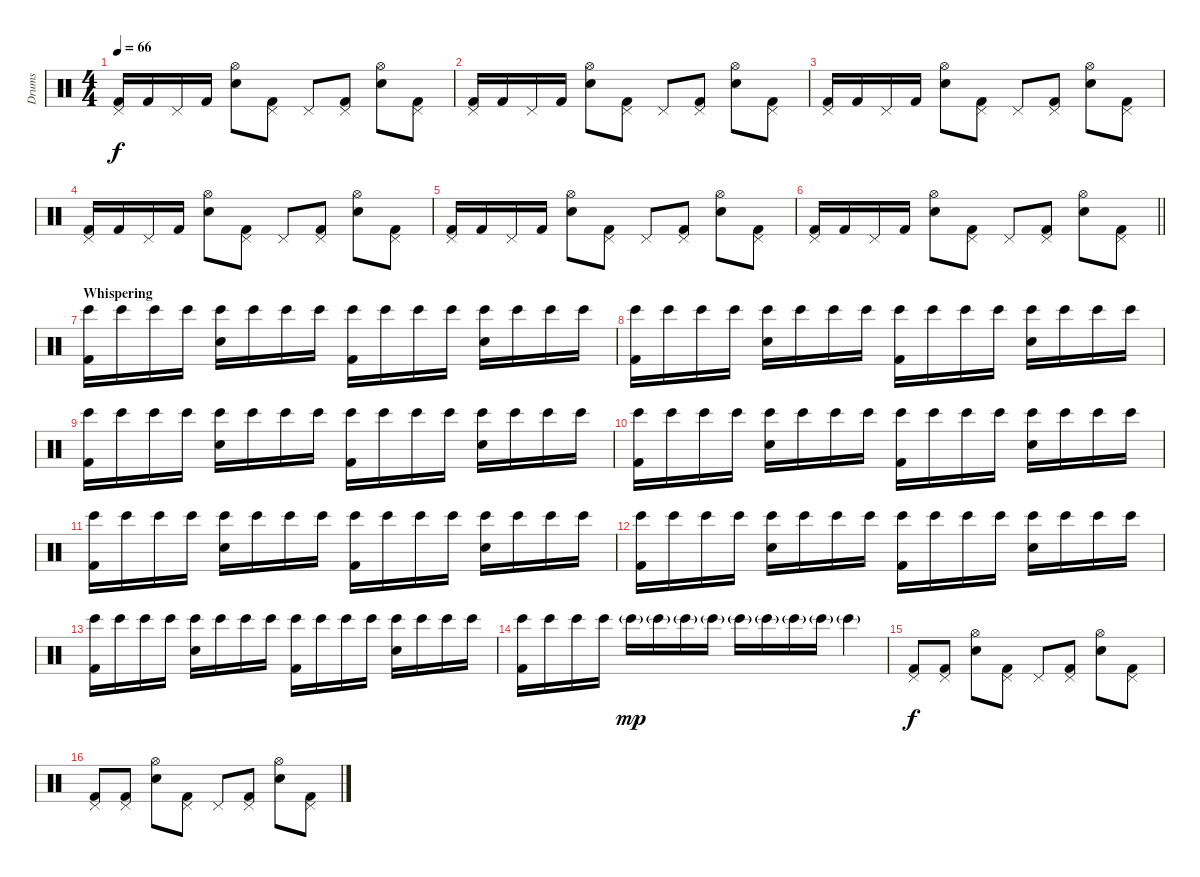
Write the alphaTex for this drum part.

\track ("Drums" "Drums") {instrument percussion}
\staff {score}
\articulation defaults
\ts (4 4)
\tempo 66
\clef neutral
\ks c
("Pedal Hi-Hat (hit)" "Kick (hit) 2").16{dy f} "Kick (hit) 2".16 "Pedal Hi-Hat (hit)".16 "Kick (hit) 2".16 ("Hi-Hat (open)" "Snare (hit) 2").8 ("Pedal Hi-Hat (hit)" "Kick (hit) 2").8 "Pedal Hi-Hat (hit)".8 ("Pedal Hi-Hat (hit)" "Kick (hit) 2").8 ("Hi-Hat (open)" "Snare (hit) 2").8 ("Pedal Hi-Hat (hit)" "Kick (hit) 2").8 |
("Pedal Hi-Hat (hit)" "Kick (hit) 2").16 "Kick (hit) 2".16 "Pedal Hi-Hat (hit)".16 "Kick (hit) 2".16 ("Hi-Hat (open)" "Snare (hit) 2").8 ("Pedal Hi-Hat (hit)" "Kick (hit) 2").8 "Pedal Hi-Hat (hit)".8 ("Pedal Hi-Hat (hit)" "Kick (hit) 2").8 ("Hi-Hat (open)" "Snare (hit) 2").8 ("Pedal Hi-Hat (hit)" "Kick (hit) 2").8 |
("Pedal Hi-Hat (hit)" "Kick (hit) 2").16 "Kick (hit) 2".16 "Pedal Hi-Hat (hit)".16 "Kick (hit) 2".16 ("Hi-Hat (open)" "Snare (hit) 2").8 ("Pedal Hi-Hat (hit)" "Kick (hit) 2").8 "Pedal Hi-Hat (hit)".8 ("Pedal Hi-Hat (hit)" "Kick (hit) 2").8 ("Hi-Hat (open)" "Snare (hit) 2").8 ("Pedal Hi-Hat (hit)" "Kick (hit) 2").8 |
("Pedal Hi-Hat (hit)" "Kick (hit) 2").16 "Kick (hit) 2".16 "Pedal Hi-Hat (hit)".16 "Kick (hit) 2".16 ("Hi-Hat (open)" "Snare (hit) 2").8 ("Pedal Hi-Hat (hit)" "Kick (hit) 2").8 "Pedal Hi-Hat (hit)".8 ("Pedal Hi-Hat (hit)" "Kick (hit) 2").8 ("Hi-Hat (open)" "Snare (hit) 2").8 ("Pedal Hi-Hat (hit)" "Kick (hit) 2").8 |
("Pedal Hi-Hat (hit)" "Kick (hit) 2").16 "Kick (hit) 2".16 "Pedal Hi-Hat (hit)".16 "Kick (hit) 2".16 ("Hi-Hat (open)" "Snare (hit) 2").8 ("Pedal Hi-Hat (hit)" "Kick (hit) 2").8 "Pedal Hi-Hat (hit)".8 ("Pedal Hi-Hat (hit)" "Kick (hit) 2").8 ("Hi-Hat (open)" "Snare (hit) 2").8 ("Pedal Hi-Hat (hit)" "Kick (hit) 2").8 |
\barLineRight lightlight
("Pedal Hi-Hat (hit)" "Kick (hit) 2").16 "Kick (hit) 2".16 "Pedal Hi-Hat (hit)".16 "Kick (hit) 2".16 ("Hi-Hat (open)" "Snare (hit) 2").8 ("Pedal Hi-Hat (hit)" "Kick (hit) 2").8 "Pedal Hi-Hat (hit)".8 ("Pedal Hi-Hat (hit)" "Kick (hit) 2").8 ("Hi-Hat (open)" "Snare (hit) 2").8 ("Pedal Hi-Hat (hit)" "Kick (hit) 2").8 |
\section ("" "Whispering")
("Bongo High (hit)" "Kick (hit) 2").16 "Bongo High (hit)".16 "Bongo High (hit)".16 "Bongo High (hit)".16 ("Bongo High (hit)" "Snare (hit) 2").16 "Bongo High (hit)".16 "Bongo High (hit)".16 "Bongo High (hit)".16 ("Bongo High (hit)" "Kick (hit) 2").16 "Bongo High (hit)".16 "Bongo High (hit)".16 "Bongo High (hit)".16 ("Bongo High (hit)" "Snare (hit) 2").16 "Bongo High (hit)".16 "Bongo High (hit)".16 "Bongo High (hit)".16 |
("Bongo High (hit)" "Kick (hit) 2").16 "Bongo High (hit)".16 "Bongo High (hit)".16 "Bongo High (hit)".16 ("Bongo High (hit)" "Snare (hit) 2").16 "Bongo High (hit)".16 "Bongo High (hit)".16 "Bongo High (hit)".16 ("Bongo High (hit)" "Kick (hit) 2").16 "Bongo High (hit)".16 "Bongo High (hit)".16 "Bongo High (hit)".16 ("Bongo High (hit)" "Snare (hit) 2").16 "Bongo High (hit)".16 "Bongo High (hit)".16 "Bongo High (hit)".16 |
("Bongo High (hit)" "Kick (hit) 2").16 "Bongo High (hit)".16 "Bongo High (hit)".16 "Bongo High (hit)".16 ("Bongo High (hit)" "Snare (hit) 2").16 "Bongo High (hit)".16 "Bongo High (hit)".16 "Bongo High (hit)".16 ("Bongo High (hit)" "Kick (hit) 2").16 "Bongo High (hit)".16 "Bongo High (hit)".16 "Bongo High (hit)".16 ("Bongo High (hit)" "Snare (hit) 2").16 "Bongo High (hit)".16 "Bongo High (hit)".16 "Bongo High (hit)".16 |
("Bongo High (hit)" "Kick (hit) 2").16 "Bongo High (hit)".16 "Bongo High (hit)".16 "Bongo High (hit)".16 ("Bongo High (hit)" "Snare (hit) 2").16 "Bongo High (hit)".16 "Bongo High (hit)".16 "Bongo High (hit)".16 ("Bongo High (hit)" "Kick (hit) 2").16 "Bongo High (hit)".16 "Bongo High (hit)".16 "Bongo High (hit)".16 ("Bongo High (hit)" "Snare (hit) 2").16 "Bongo High (hit)".16 "Bongo High (hit)".16 "Bongo High (hit)".16 |
("Bongo High (hit)" "Kick (hit) 2").16 "Bongo High (hit)".16 "Bongo High (hit)".16 "Bongo High (hit)".16 ("Bongo High (hit)" "Snare (hit) 2").16 "Bongo High (hit)".16 "Bongo High (hit)".16 "Bongo High (hit)".16 ("Bongo High (hit)" "Kick (hit) 2").16 "Bongo High (hit)".16 "Bongo High (hit)".16 "Bongo High (hit)".16 ("Bongo High (hit)" "Snare (hit) 2").16 "Bongo High (hit)".16 "Bongo High (hit)".16 "Bongo High (hit)".16 |
("Bongo High (hit)" "Kick (hit) 2").16 "Bongo High (hit)".16 "Bongo High (hit)".16 "Bongo High (hit)".16 ("Bongo High (hit)" "Snare (hit) 2").16 "Bongo High (hit)".16 "Bongo High (hit)".16 "Bongo High (hit)".16 ("Bongo High (hit)" "Kick (hit) 2").16 "Bongo High (hit)".16 "Bongo High (hit)".16 "Bongo High (hit)".16 ("Bongo High (hit)" "Snare (hit) 2").16 "Bongo High (hit)".16 "Bongo High (hit)".16 "Bongo High (hit)".16 |
("Bongo High (hit)" "Kick (hit) 2").16 "Bongo High (hit)".16 "Bongo High (hit)".16 "Bongo High (hit)".16 ("Bongo High (hit)" "Snare (hit) 2").16 "Bongo High (hit)".16 "Bongo High (hit)".16 "Bongo High (hit)".16 ("Bongo High (hit)" "Kick (hit) 2").16 "Bongo High (hit)".16 "Bongo High (hit)".16 "Bongo High (hit)".16 ("Bongo High (hit)" "Snare (hit) 2").16 "Bongo High (hit)".16 "Bongo High (hit)".16 "Bongo High (hit)".16 |
("Bongo High (hit)" "Kick (hit) 2").16 "Bongo High (hit)".16 "Bongo High (hit)".16 "Bongo High (hit)".16 "Bongo High (hit)"{g}.16{dy mp} "Bongo High (hit)"{g}.16 "Bongo High (hit)"{g}.16 "Bongo High (hit)"{g}.16 "Bongo High (hit)"{g}.16 "Bongo High (hit)"{g}.16 "Bongo High (hit)"{g}.16 "Bongo High (hit)"{g}.16 "Bongo High (hit)"{g}.4 |
("Pedal Hi-Hat (hit)" "Kick (hit) 2").8{dy f} ("Pedal Hi-Hat (hit)" "Kick (hit) 2").8 ("Hi-Hat (open)" "Snare (hit) 2").8 ("Pedal Hi-Hat (hit)" "Kick (hit) 2").8 "Pedal Hi-Hat (hit)".8 ("Pedal Hi-Hat (hit)" "Kick (hit) 2").8 ("Hi-Hat (open)" "Snare (hit) 2").8 ("Pedal Hi-Hat (hit)" "Kick (hit) 2").8 |
("Pedal Hi-Hat (hit)" "Kick (hit) 2").8 ("Pedal Hi-Hat (hit)" "Kick (hit) 2").8 ("Hi-Hat (open)" "Snare (hit) 2").8 ("Pedal Hi-Hat (hit)" "Kick (hit) 2").8 "Pedal Hi-Hat (hit)".8 ("Pedal Hi-Hat (hit)" "Kick (hit) 2").8 ("Hi-Hat (open)" "Snare (hit) 2").8 ("Pedal Hi-Hat (hit)" "Kick (hit) 2").8
